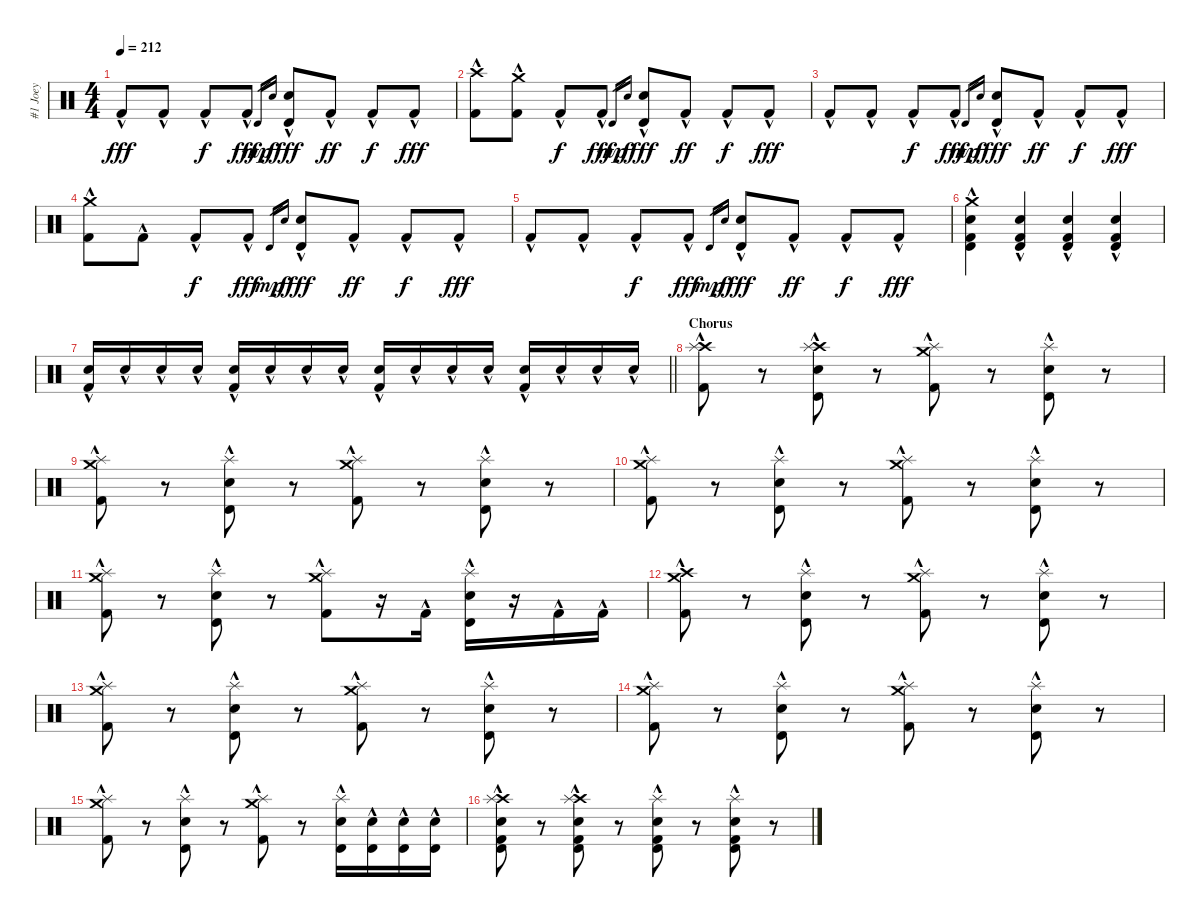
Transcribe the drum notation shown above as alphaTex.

\track ("#1 Joey" "#1 Joey") {instrument percussion}
\staff {score}
\articulation defaults
\ts (4 4)
\tempo 212
\clef neutral
\ks c "Kick (hit) 2"{hac}.8{dy fff} "Kick (hit) 2"{hac}.8 "Kick (hit) 2"{hac}.8{dy f} "Kick (hit) 2"{hac}.8{dy fff} "Timbale high (hit)".16{gr dy mp} "Electric Snare (hit)".16{gr dy f}
("Timbale high (hit)"{hac} "Electric Snare (hit)"{hac}).8{dy fff} "Kick (hit) 2"{hac}.8{dy ff} "Kick (hit) 2"{hac}.8{dy f} "Kick (hit) 2"{hac}.8{dy fff} |
("Crash high (hit)"{hac} "Kick (hit) 2"{hac}).8 ("Crash medium (hit)"{hac} "Kick (hit) 2"{hac}).8 "Kick (hit) 2"{hac}.8{dy f} "Kick (hit) 2"{hac}.8{dy fff} "Timbale high (hit)".16{gr dy mp} "Electric Snare (hit)".16{gr dy f} ("Timbale high (hit)"{hac} "Electric Snare (hit)"{hac}).8{dy fff} "Kick (hit) 2"{hac}.8{dy ff} "Kick (hit) 2"{hac}.8{dy f} "Kick (hit) 2"{hac}.8{dy fff} |
"Kick (hit) 2"{hac}.8 "Kick (hit) 2"{hac}.8 "Kick (hit) 2"{hac}.8{dy f} "Kick (hit) 2"{hac}.8{dy fff} "Timbale high (hit)".16{gr dy mp} "Electric Snare (hit)".16{gr dy f} ("Timbale high (hit)"{hac} "Electric Snare (hit)"{hac}).8{dy fff} "Kick (hit) 2"{hac}.8{dy ff} "Kick (hit) 2"{hac}.8{dy f} "Kick (hit) 2"{hac}.8{dy fff} |
("Crash medium (hit)"{hac} "Kick (hit) 2"{hac}).8 "Kick (hit) 2"{hac}.8 "Kick (hit) 2"{hac}.8{dy f} "Kick (hit) 2"{hac}.8{dy fff} "Timbale high (hit)".16{gr dy mp} "Electric Snare (hit)".16{gr dy f} ("Timbale high (hit)"{hac} "Electric Snare (hit)"{hac}).8{dy fff} "Kick (hit) 2"{hac}.8{dy ff} "Kick (hit) 2"{hac}.8{dy f} "Kick (hit) 2"{hac}.8{dy fff} |
"Kick (hit) 2"{hac}.8 "Kick (hit) 2"{hac}.8 "Kick (hit) 2"{hac}.8{dy f} "Kick (hit) 2"{hac}.8{dy fff} "Timbale high (hit)".16{gr dy mp} "Electric Snare (hit)".16{gr dy f} ("Timbale high (hit)"{hac} "Electric Snare (hit)"{hac}).8{dy fff} "Kick (hit) 2"{hac}.8{dy ff} "Kick (hit) 2"{hac}.8{dy f} "Kick (hit) 2"{hac}.8{dy fff} |
("Crash medium (hit)"{hac} "Timbale high (hit)"{hac} "Electric Snare (hit)"{hac} "Kick (hit) 2"{hac}).4 ("Timbale high (hit)"{hac} "Electric Snare (hit)"{hac} "Kick (hit) 2"{hac}).4 ("Timbale high (hit)"{hac} "Electric Snare (hit)"{hac} "Kick (hit) 2"{hac}).4 ("Timbale high (hit)"{hac} "Electric Snare (hit)"{hac} "Kick (hit) 2"{hac}).4 |
\barLineRight lightlight
("Electric Snare (hit)"{hac} "Kick (hit) 2"{hac}).16 "Electric Snare (hit)"{hac}.16 "Electric Snare (hit)"{hac}.16 "Electric Snare (hit)"{hac}.16 ("Electric Snare (hit)"{hac} "Kick (hit) 2"{hac}).16 "Electric Snare (hit)"{hac}.16 "Electric Snare (hit)"{hac}.16 "Electric Snare (hit)"{hac}.16 ("Electric Snare (hit)"{hac} "Kick (hit) 2"{hac}).16 "Electric Snare (hit)"{hac}.16 "Electric Snare (hit)"{hac}.16 "Electric Snare (hit)"{hac}.16 ("Electric Snare (hit)"{hac} "Kick (hit) 2"{hac}).16 "Electric Snare (hit)"{hac}.16 "Electric Snare (hit)"{hac}.16 "Electric Snare (hit)"{hac}.16 |
\section ("" "Chorus")
("Crash high (hit)"{hac} "Splash (hit)"{hac} "Kick (hit) 2"{hac}).8 r.8 ("Crash high (hit)"{hac} "Splash (hit)"{hac} "Timbale high (hit)"{hac} "Electric Snare (hit)"{hac}).8 r.8 ("Crash medium (hit)"{hac} "Splash (hit)"{hac} "Kick (hit) 2"{hac}).8 r.8 ("Splash (hit)"{hac} "Timbale high (hit)"{hac} "Electric Snare (hit)"{hac}).8 r.8 |
("Crash medium (hit)"{hac} "Splash (hit)"{hac} "Kick (hit) 2"{hac}).8 r.8 ("Splash (hit)"{hac} "Timbale high (hit)"{hac} "Electric Snare (hit)"{hac}).8 r.8 ("Crash medium (hit)"{hac} "Splash (hit)"{hac} "Kick (hit) 2"{hac}).8 r.8 ("Splash (hit)"{hac} "Timbale high (hit)"{hac} "Electric Snare (hit)"{hac}).8 r.8 |
("Crash medium (hit)"{hac} "Splash (hit)"{hac} "Kick (hit) 2"{hac}).8 r.8 ("Splash (hit)"{hac} "Timbale high (hit)"{hac} "Electric Snare (hit)"{hac}).8 r.8 ("Crash medium (hit)"{hac} "Splash (hit)"{hac} "Kick (hit) 2"{hac}).8 r.8 ("Splash (hit)"{hac} "Timbale high (hit)"{hac} "Electric Snare (hit)"{hac}).8 r.8 |
("Crash medium (hit)"{hac} "Splash (hit)"{hac} "Kick (hit) 2"{hac}).8 r.8 ("Splash (hit)"{hac} "Timbale high (hit)"{hac} "Electric Snare (hit)"{hac}).8 r.8 ("Crash medium (hit)"{hac} "Splash (hit)"{hac} "Kick (hit) 2"{hac}).8 r.16 "Kick (hit) 2"{hac}.16 ("Splash (hit)"{hac} "Timbale high (hit)"{hac} "Electric Snare (hit)"{hac}).16 r.16 "Kick (hit) 2"{hac}.16 "Kick (hit) 2"{hac}.16 |
("Crash high (hit)"{hac} "Crash medium (hit)"{hac} "Kick (hit) 2"{hac}).8 r.8 ("Splash (hit)"{hac} "Timbale high (hit)"{hac} "Electric Snare (hit)"{hac}).8 r.8 ("Crash medium (hit)"{hac} "Splash (hit)"{hac} "Kick (hit) 2"{hac}).8 r.8 ("Splash (hit)"{hac} "Timbale high (hit)"{hac} "Electric Snare (hit)"{hac}).8 r.8 |
("Crash medium (hit)"{hac} "Splash (hit)"{hac} "Kick (hit) 2"{hac}).8 r.8 ("Splash (hit)"{hac} "Timbale high (hit)"{hac} "Electric Snare (hit)"{hac}).8 r.8 ("Crash medium (hit)"{hac} "Splash (hit)"{hac} "Kick (hit) 2"{hac}).8 r.8 ("Splash (hit)"{hac} "Timbale high (hit)"{hac} "Electric Snare (hit)"{hac}).8 r.8 |
("Crash medium (hit)"{hac} "Splash (hit)"{hac} "Kick (hit) 2"{hac}).8 r.8 ("Splash (hit)"{hac} "Timbale high (hit)"{hac} "Electric Snare (hit)"{hac}).8 r.8 ("Crash medium (hit)"{hac} "Splash (hit)"{hac} "Kick (hit) 2"{hac}).8 r.8 ("Splash (hit)"{hac} "Timbale high (hit)"{hac} "Electric Snare (hit)"{hac}).8 r.8 |
("Crash medium (hit)"{hac} "Splash (hit)"{hac} "Kick (hit) 2"{hac}).8 r.8 ("Splash (hit)"{hac} "Timbale high (hit)"{hac} "Electric Snare (hit)"{hac}).8 r.8 ("Crash medium (hit)"{hac} "Splash (hit)"{hac} "Kick (hit) 2"{hac}).8 r.8 ("Splash (hit)"{hac} "Timbale high (hit)"{hac} "Electric Snare (hit)"{hac}).16 ("Timbale high (hit)"{hac} "Electric Snare (hit)"{hac}).16 ("Timbale high (hit)"{hac} "Electric Snare (hit)"{hac}).16 ("Timbale high (hit)"{hac} "Electric Snare (hit)"{hac}).16 |
("Crash high (hit)"{hac} "Splash (hit)"{hac} "Timbale high (hit)"{hac} "Electric Snare (hit)"{hac} "Kick (hit) 2"{hac}).8 r.8 ("Crash high (hit)"{hac} "Splash (hit)"{hac} "Timbale high (hit)"{hac} "Electric Snare (hit)"{hac} "Kick (hit) 2"{hac}).8 r.8 ("Splash (hit)"{hac} "Timbale high (hit)"{hac} "Electric Snare (hit)"{hac} "Kick (hit) 2"{hac}).8 r.8 ("Splash (hit)"{hac} "Timbale high (hit)"{hac} "Electric Snare (hit)"{hac} "Kick (hit) 2"{hac}).8 r.8
